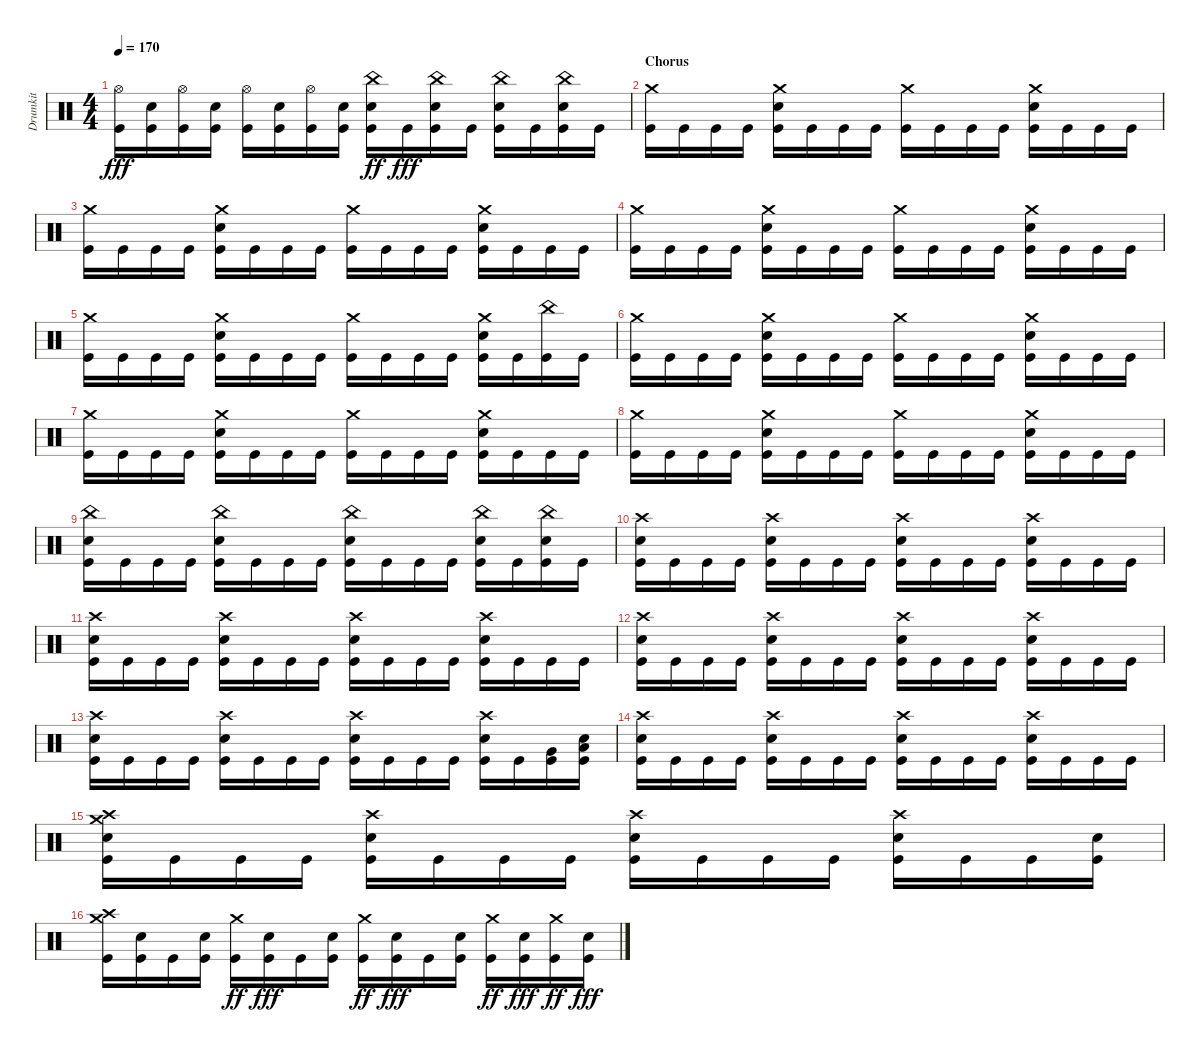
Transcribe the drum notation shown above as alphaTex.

\track ("Drumkit" "Drumkit") {instrument percussion}
\staff {score}
\articulation defaults
\ts (4 4)
\tempo 170
\clef neutral
\ks c
("Hi-Hat (open)" "Kick (hit)").16{dy fff} ("Snare (hit) 2" "Kick (hit)").16 ("Hi-Hat (open)" "Kick (hit)").16 ("Snare (hit) 2" "Kick (hit)").16 ("Hi-Hat (open)" "Kick (hit)").16 ("Snare (hit) 2" "Kick (hit)").16 ("Hi-Hat (open)" "Kick (hit)").16 ("Snare (hit) 2" "Kick (hit)").16 ("China (hit)" "Snare (hit) 2" "Kick (hit)").16{dy ff} "Kick (hit)".16{dy fff} ("China (hit)" "Snare (hit) 2" "Kick (hit)").16 "Kick (hit)".16 ("China (hit)" "Snare (hit) 2" "Kick (hit)").16 "Kick (hit)".16 ("China (hit)" "Snare (hit) 2" "Kick (hit)").16 "Kick (hit)".16 |
\section ("" "Chorus")
("Crash medium (hit)" "Kick (hit)").16 "Kick (hit)".16 "Kick (hit)".16 "Kick (hit)".16 ("Crash medium (hit)" "Snare (hit) 2" "Kick (hit)").16 "Kick (hit)".16 "Kick (hit)".16 "Kick (hit)".16 ("Crash medium (hit)" "Kick (hit)").16 "Kick (hit)".16 "Kick (hit)".16 "Kick (hit)".16 ("Crash medium (hit)" "Snare (hit) 2" "Kick (hit)").16 "Kick (hit)".16 "Kick (hit)".16 "Kick (hit)".16 |
("Crash medium (hit)" "Kick (hit)").16 "Kick (hit)".16 "Kick (hit)".16 "Kick (hit)".16 ("Crash medium (hit)" "Snare (hit) 2" "Kick (hit)").16 "Kick (hit)".16 "Kick (hit)".16 "Kick (hit)".16 ("Crash medium (hit)" "Kick (hit)").16 "Kick (hit)".16 "Kick (hit)".16 "Kick (hit)".16 ("Crash medium (hit)" "Snare (hit) 2" "Kick (hit)").16 "Kick (hit)".16 "Kick (hit)".16 "Kick (hit)".16 |
("Crash medium (hit)" "Kick (hit)").16 "Kick (hit)".16 "Kick (hit)".16 "Kick (hit)".16 ("Crash medium (hit)" "Snare (hit) 2" "Kick (hit)").16 "Kick (hit)".16 "Kick (hit)".16 "Kick (hit)".16 ("Crash medium (hit)" "Kick (hit)").16 "Kick (hit)".16 "Kick (hit)".16 "Kick (hit)".16 ("Crash medium (hit)" "Snare (hit) 2" "Kick (hit)").16 "Kick (hit)".16 "Kick (hit)".16 "Kick (hit)".16 |
("Crash medium (hit)" "Kick (hit)").16 "Kick (hit)".16 "Kick (hit)".16 "Kick (hit)".16 ("Crash medium (hit)" "Snare (hit) 2" "Kick (hit)").16 "Kick (hit)".16 "Kick (hit)".16 "Kick (hit)".16 ("Crash medium (hit)" "Kick (hit)").16 "Kick (hit)".16 "Kick (hit)".16 "Kick (hit)".16 ("Crash medium (hit)" "Snare (hit) 2" "Kick (hit)").16 "Kick (hit)".16 ("China (hit)" "Kick (hit)").16 "Kick (hit)".16 |
("Crash medium (hit)" "Kick (hit)").16 "Kick (hit)".16 "Kick (hit)".16 "Kick (hit)".16 ("Crash medium (hit)" "Snare (hit) 2" "Kick (hit)").16 "Kick (hit)".16 "Kick (hit)".16 "Kick (hit)".16 ("Crash medium (hit)" "Kick (hit)").16 "Kick (hit)".16 "Kick (hit)".16 "Kick (hit)".16 ("Crash medium (hit)" "Snare (hit) 2" "Kick (hit)").16 "Kick (hit)".16 "Kick (hit)".16 "Kick (hit)".16 |
("Crash medium (hit)" "Kick (hit)").16 "Kick (hit)".16 "Kick (hit)".16 "Kick (hit)".16 ("Crash medium (hit)" "Snare (hit) 2" "Kick (hit)").16 "Kick (hit)".16 "Kick (hit)".16 "Kick (hit)".16 ("Crash medium (hit)" "Kick (hit)").16 "Kick (hit)".16 "Kick (hit)".16 "Kick (hit)".16 ("Crash medium (hit)" "Snare (hit) 2" "Kick (hit)").16 "Kick (hit)".16 "Kick (hit)".16 "Kick (hit)".16 |
("Crash medium (hit)" "Kick (hit)").16 "Kick (hit)".16 "Kick (hit)".16 "Kick (hit)".16 ("Crash medium (hit)" "Snare (hit) 2" "Kick (hit)").16 "Kick (hit)".16 "Kick (hit)".16 "Kick (hit)".16 ("Crash medium (hit)" "Kick (hit)").16 "Kick (hit)".16 "Kick (hit)".16 "Kick (hit)".16 ("Crash medium (hit)" "Snare (hit) 2" "Kick (hit)").16 "Kick (hit)".16 "Kick (hit)".16 "Kick (hit)".16 |
("China (hit)" "Snare (hit) 2" "Kick (hit)").16 "Kick (hit)".16 "Kick (hit)".16 "Kick (hit)".16 ("China (hit)" "Snare (hit) 2" "Kick (hit)").16 "Kick (hit)".16 "Kick (hit)".16 "Kick (hit)".16 ("China (hit)" "Snare (hit) 2" "Kick (hit)").16 "Kick (hit)".16 "Kick (hit)".16 "Kick (hit)".16 ("China (hit)" "Snare (hit) 2" "Kick (hit)").16 "Kick (hit)".16 ("China (hit)" "Snare (hit) 2" "Kick (hit)").16 "Kick (hit)".16 |
("Crash high (hit)" "Snare (hit) 2" "Kick (hit)").16 "Kick (hit)".16 "Kick (hit)".16 "Kick (hit)".16 ("Crash high (hit)" "Snare (hit) 2" "Kick (hit)").16 "Kick (hit)".16 "Kick (hit)".16 "Kick (hit)".16 ("Crash high (hit)" "Snare (hit) 2" "Kick (hit)").16 "Kick (hit)".16 "Kick (hit)".16 "Kick (hit)".16 ("Crash high (hit)" "Snare (hit) 2" "Kick (hit)").16 "Kick (hit)".16 "Kick (hit)".16 "Kick (hit)".16 |
("Crash high (hit)" "Snare (hit) 2" "Kick (hit)").16 "Kick (hit)".16 "Kick (hit)".16 "Kick (hit)".16 ("Crash high (hit)" "Snare (hit) 2" "Kick (hit)").16 "Kick (hit)".16 "Kick (hit)".16 "Kick (hit)".16 ("Crash high (hit)" "Snare (hit) 2" "Kick (hit)").16 "Kick (hit)".16 "Kick (hit)".16 "Kick (hit)".16 ("Crash high (hit)" "Snare (hit) 2" "Kick (hit)").16 "Kick (hit)".16 "Kick (hit)".16 "Kick (hit)".16 |
("Crash high (hit)" "Snare (hit) 2" "Kick (hit)").16 "Kick (hit)".16 "Kick (hit)".16 "Kick (hit)".16 ("Crash high (hit)" "Snare (hit) 2" "Kick (hit)").16 "Kick (hit)".16 "Kick (hit)".16 "Kick (hit)".16 ("Crash high (hit)" "Snare (hit) 2" "Kick (hit)").16 "Kick (hit)".16 "Kick (hit)".16 "Kick (hit)".16 ("Crash high (hit)" "Snare (hit) 2" "Kick (hit)").16 "Kick (hit)".16 "Kick (hit)".16 "Kick (hit)".16 |
("Crash high (hit)" "Snare (hit) 2" "Kick (hit)").16 "Kick (hit)".16 "Kick (hit)".16 "Kick (hit)".16 ("Crash high (hit)" "Snare (hit) 2" "Kick (hit)").16 "Kick (hit)".16 "Kick (hit)".16 "Kick (hit)".16 ("Crash high (hit)" "Snare (hit) 2" "Kick (hit)").16 "Kick (hit)".16 "Kick (hit)".16 "Kick (hit)".16 ("Crash high (hit)" "Snare (hit) 2" "Kick (hit)").16 "Kick (hit)".16 ("Very Low Tom (hit)" "Kick (hit)").16 ("Low Floor Tom (hit)" "Snare (hit) 2" "Kick (hit)").16 |
("Crash high (hit)" "Snare (hit) 2" "Kick (hit)").16 "Kick (hit)".16 "Kick (hit)".16 "Kick (hit)".16 ("Crash high (hit)" "Snare (hit) 2" "Kick (hit)").16 "Kick (hit)".16 "Kick (hit)".16 "Kick (hit)".16 ("Crash high (hit)" "Snare (hit) 2" "Kick (hit)").16 "Kick (hit)".16 "Kick (hit)".16 "Kick (hit)".16 ("Crash high (hit)" "Snare (hit) 2" "Kick (hit)").16 "Kick (hit)".16 "Kick (hit)".16 "Kick (hit)".16 |
("Crash high (hit)" "Crash medium (hit)" "Snare (hit) 2" "Kick (hit)").16 "Kick (hit)".16 "Kick (hit)".16 "Kick (hit)".16 ("Crash high (hit)" "Snare (hit) 2" "Kick (hit)").16 "Kick (hit)".16 "Kick (hit)".16 "Kick (hit)".16 ("Crash high (hit)" "Snare (hit) 2" "Kick (hit)").16 "Kick (hit)".16 "Kick (hit)".16 "Kick (hit)".16 ("Crash high (hit)" "Snare (hit) 2" "Kick (hit)").16 "Kick (hit)".16 "Kick (hit)".16 ("Snare (hit) 2" "Kick (hit)").16 |
("Crash high (hit)" "Crash medium (hit)" "Kick (hit)").16 ("Snare (hit) 2" "Kick (hit)").16 "Kick (hit)".16 ("Snare (hit) 2" "Kick (hit)").16 ("Crash medium (hit)" "Kick (hit)").16{dy ff} ("Snare (hit) 2" "Kick (hit)").16{dy fff} "Kick (hit)".16 ("Snare (hit) 2" "Kick (hit)").16 ("Crash medium (hit)" "Kick (hit)").16{dy ff} ("Snare (hit) 2" "Kick (hit)").16{dy fff} "Kick (hit)".16 ("Snare (hit) 2" "Kick (hit)").16 ("Crash medium (hit)" "Kick (hit)").16{dy ff} ("Snare (hit) 2" "Kick (hit)").16{dy fff} ("Crash medium (hit)" "Kick (hit)").16{dy ff} ("Snare (hit) 2" "Kick (hit)").16{dy fff}
